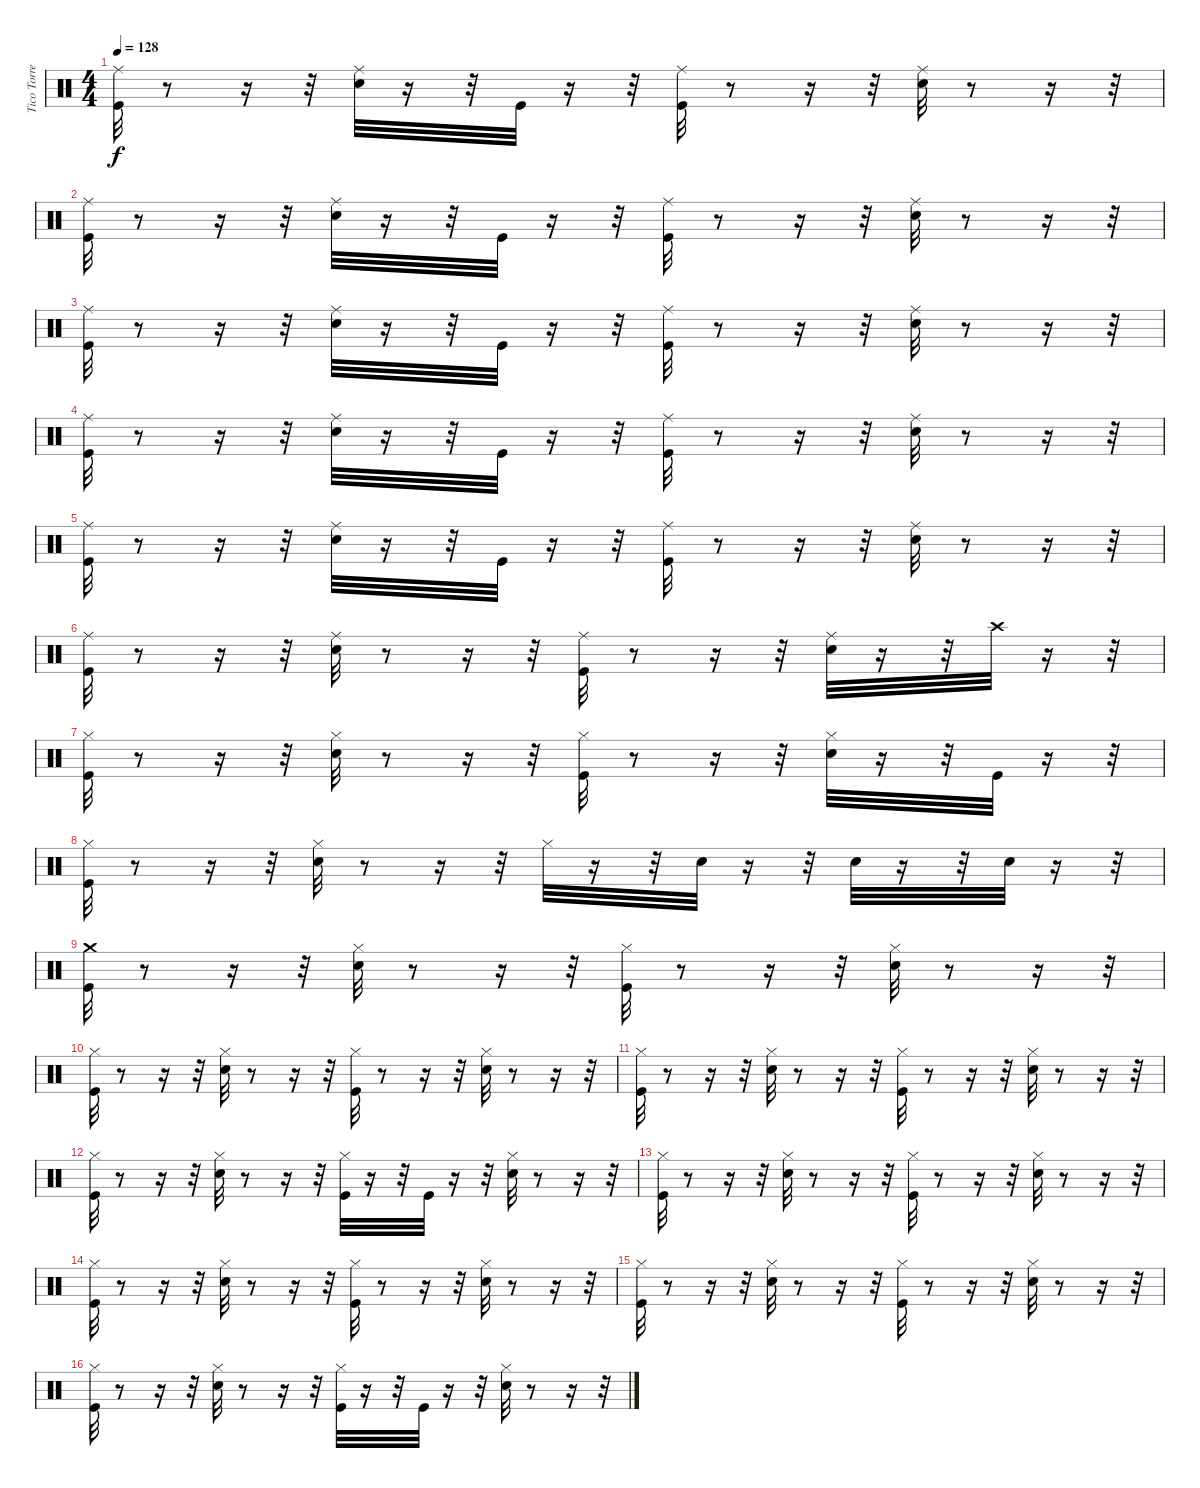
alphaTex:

\track ("Tico Torres" "Tico Torre") {instrument percussion}
\staff {score}
\articulation defaults
\ts (4 4)
\tempo 128
\clef neutral
\ks c
("Ride (middle)" "Kick (hit)").32{dy f} r.8 r.16 r.32 ("Ride (middle)" "Snare (hit) 2").32 r.16 r.32 "Kick (hit)".32 r.16 r.32 ("Ride (middle)" "Kick (hit)").32 r.8 r.16 r.32 ("Ride (middle)" "Snare (hit) 2").32 r.8 r.16 r.32 |
("Ride (middle)" "Kick (hit)").32 r.8 r.16 r.32 ("Ride (middle)" "Snare (hit) 2").32 r.16 r.32 "Kick (hit)".32 r.16 r.32 ("Ride (middle)" "Kick (hit)").32 r.8 r.16 r.32 ("Ride (middle)" "Snare (hit) 2").32 r.8 r.16 r.32 |
("Ride (middle)" "Kick (hit)").32 r.8 r.16 r.32 ("Ride (middle)" "Snare (hit) 2").32 r.16 r.32 "Kick (hit)".32 r.16 r.32 ("Ride (middle)" "Kick (hit)").32 r.8 r.16 r.32 ("Ride (middle)" "Snare (hit) 2").32 r.8 r.16 r.32 |
("Ride (middle)" "Kick (hit)").32 r.8 r.16 r.32 ("Ride (middle)" "Snare (hit) 2").32 r.16 r.32 "Kick (hit)".32 r.16 r.32 ("Ride (middle)" "Kick (hit)").32 r.8 r.16 r.32 ("Ride (middle)" "Snare (hit) 2").32 r.8 r.16 r.32 |
("Ride (middle)" "Kick (hit)").32 r.8 r.16 r.32 ("Ride (middle)" "Snare (hit) 2").32 r.16 r.32 "Kick (hit)".32 r.16 r.32 ("Ride (middle)" "Kick (hit)").32 r.8 r.16 r.32 ("Ride (middle)" "Snare (hit) 2").32 r.8 r.16 r.32 |
("Ride (middle)" "Kick (hit)").32 r.8 r.16 r.32 ("Ride (middle)" "Snare (hit) 2").32 r.8 r.16 r.32 ("Ride (middle)" "Kick (hit)").32 r.8 r.16 r.32 ("Ride (middle)" "Snare (hit) 2").32 r.16 r.32 "Crash high (hit)".32 r.16 r.32 |
("Hi-Hat (closed)" "Kick (hit)").32 r.8 r.16 r.32 ("Hi-Hat (closed)" "Snare (hit) 2").32 r.8 r.16 r.32 ("Hi-Hat (closed)" "Kick (hit)").32 r.8 r.16 r.32 ("Hi-Hat (closed)" "Snare (hit) 2").32 r.16 r.32 "Kick (hit)".32 r.16 r.32 |
("Hi-Hat (closed)" "Kick (hit)").32 r.8 r.16 r.32 ("Hi-Hat (closed)" "Snare (hit) 2").32 r.8 r.16 r.32 "Hi-Hat (closed)".32 r.16 r.32 "Snare (hit) 2".32 r.16 r.32 "Snare (hit) 2".32 r.16 r.32 "Snare (hit) 2".32 r.16 r.32 |
("Kick (hit)" "Crash medium (hit)").32 r.8 r.16 r.32 ("Hi-Hat (closed)" "Snare (hit) 2").32 r.8 r.16 r.32 ("Hi-Hat (closed)" "Kick (hit)").32 r.8 r.16 r.32 ("Hi-Hat (closed)" "Snare (hit) 2").32 r.8 r.16 r.32 |
("Kick (hit)" "Hi-Hat (closed)").32 r.8 r.16 r.32 ("Snare (hit) 2" "Hi-Hat (closed)").32 r.8 r.16 r.32 ("Kick (hit)" "Hi-Hat (closed)").32 r.8 r.16 r.32 ("Snare (hit) 2" "Hi-Hat (closed)").32 r.8 r.16 r.32 |
("Kick (hit)" "Hi-Hat (closed)").32 r.8 r.16 r.32 ("Snare (hit) 2" "Hi-Hat (closed)").32 r.8 r.16 r.32 ("Kick (hit)" "Hi-Hat (closed)").32 r.8 r.16 r.32 ("Snare (hit) 2" "Hi-Hat (closed)").32 r.8 r.16 r.32 |
("Hi-Hat (closed)" "Kick (hit)").32 r.8 r.16 r.32 ("Hi-Hat (closed)" "Snare (hit) 2").32 r.8 r.16 r.32 ("Hi-Hat (closed)" "Kick (hit)").32 r.16 r.32 "Kick (hit)".32 r.16 r.32 ("Hi-Hat (closed)" "Snare (hit) 2").32 r.8 r.16 r.32 |
("Kick (hit)" "Hi-Hat (closed)").32 r.8 r.16 r.32 ("Snare (hit) 2" "Hi-Hat (closed)").32 r.8 r.16 r.32 ("Kick (hit)" "Hi-Hat (closed)").32 r.8 r.16 r.32 ("Snare (hit) 2" "Hi-Hat (closed)").32 r.8 r.16 r.32 |
("Kick (hit)" "Hi-Hat (closed)").32 r.8 r.16 r.32 ("Snare (hit) 2" "Hi-Hat (closed)").32 r.8 r.16 r.32 ("Kick (hit)" "Hi-Hat (closed)").32 r.8 r.16 r.32 ("Snare (hit) 2" "Hi-Hat (closed)").32 r.8 r.16 r.32 |
("Kick (hit)" "Hi-Hat (closed)").32 r.8 r.16 r.32 ("Snare (hit) 2" "Hi-Hat (closed)").32 r.8 r.16 r.32 ("Kick (hit)" "Hi-Hat (closed)").32 r.8 r.16 r.32 ("Snare (hit) 2" "Hi-Hat (closed)").32 r.8 r.16 r.32 |
("Kick (hit)" "Hi-Hat (closed)").32 r.8 r.16 r.32 ("Snare (hit) 2" "Hi-Hat (closed)").32 r.8 r.16 r.32 ("Kick (hit)" "Hi-Hat (closed)").32 r.16 r.32 "Kick (hit)".32 r.16 r.32 ("Snare (hit) 2" "Hi-Hat (closed)").32 r.8 r.16 r.32
